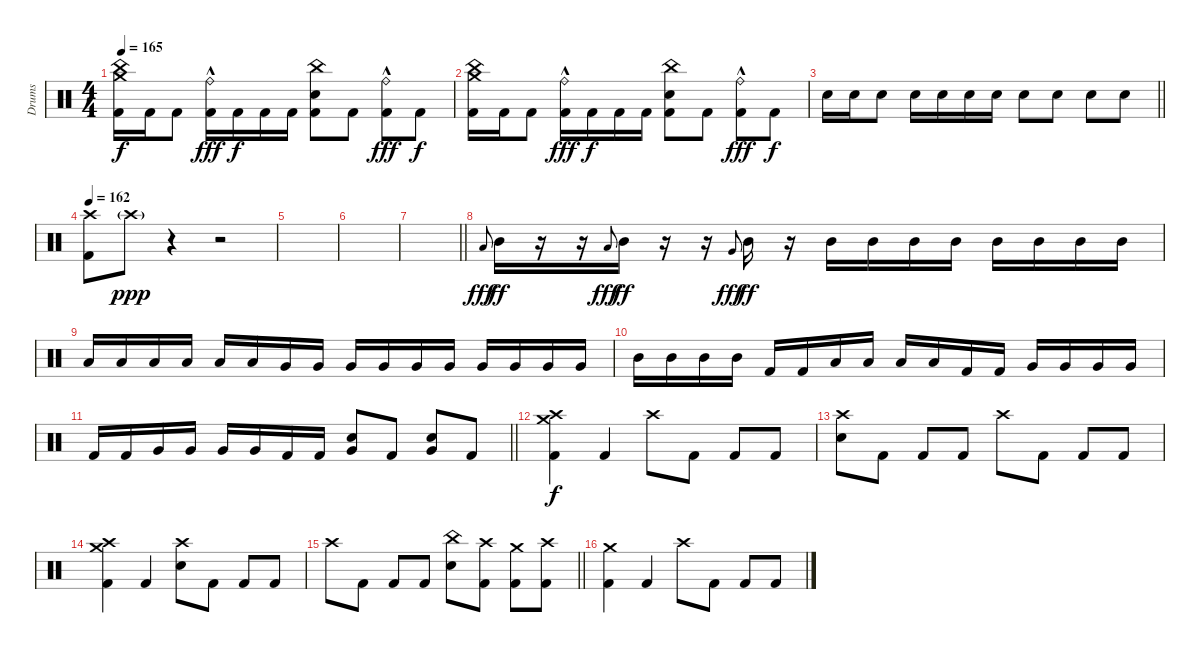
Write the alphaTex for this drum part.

\track ("Drums" "Drums") {instrument percussion}
\staff {score}
\articulation defaults
\ts (4 4)
\tempo 165
\clef neutral
\ks c
("China (hit)" "Crash medium (hit)" "Kick (hit) 2").16{dy f} "Kick (hit) 2".16 "Kick (hit) 2".8 ("Ride (bell)"{hac} "Kick (hit) 2").16{dy fff} "Kick (hit) 2".16{dy f} "Kick (hit) 2".16 "Kick (hit) 2".16 ("China (hit)" "Electric Snare (hit)" "Kick (hit) 2").8 "Kick (hit) 2".8 ("Ride (bell)"{hac} "Kick (hit) 2").8{dy fff} "Kick (hit) 2".8{dy f} |
("China (hit)" "Crash medium (hit)" "Kick (hit) 2").16 "Kick (hit) 2".16 "Kick (hit) 2".8 ("Ride (bell)"{hac} "Kick (hit) 2").16{dy fff} "Kick (hit) 2".16{dy f} "Kick (hit) 2".16 "Kick (hit) 2".16 ("China (hit)" "Electric Snare (hit)" "Kick (hit) 2").8 "Kick (hit) 2".8 ("Ride (bell)"{hac} "Kick (hit) 2").8{dy fff} "Kick (hit) 2".8{dy f} |
\barLineRight lightlight "Electric Snare (hit)".16 "Electric Snare (hit)".16 "Electric Snare (hit)".8 "Electric Snare (hit)".16 "Electric Snare (hit)".16 "Electric Snare (hit)".16 "Electric Snare (hit)".16 "Electric Snare (hit)".8 "Electric Snare (hit)".8 "Electric Snare (hit)".8 "Electric Snare (hit)".8
|
\section ("" "")
\tempo 162
("Crash high (hit)" "Kick (hit) 2").8 "Crash high (hit)"{g}.8{dy ppp} r.4 r.2 |
|
|
\barLineRight lightlight
|
"Low Tom (hit)".8{gr onbeat dy fff} "Mid Tom (hit)".16{dy ff} r.16 r.16 "Low Tom (hit)".8{gr onbeat dy fff} "Mid Tom (hit)".16{dy ff} r.16 r.16 "Very Low Tom (hit)".8{gr onbeat dy fff} "Mid Tom (hit)".16{dy ff} r.16 "Mid Tom (hit)".16 "Mid Tom (hit)".16 "Mid Tom (hit)".16 "Mid Tom (hit)".16 "Mid Tom (hit)".16 "Mid Tom (hit)".16 "Mid Tom (hit)".16 "Mid Tom (hit)".16 |
"Low Tom (hit)".16 "Low Tom (hit)".16 "Low Tom (hit)".16 "Low Tom (hit)".16 "Low Tom (hit)".16 "Low Tom (hit)".16 "Very Low Tom (hit)".16 "Very Low Tom (hit)".16 "Very Low Tom (hit)".16 "Very Low Tom (hit)".16 "Very Low Tom (hit)".16 "Very Low Tom (hit)".16 "Very Low Tom (hit)".16 "Very Low Tom (hit)".16 "Very Low Tom (hit)".16 "Very Low Tom (hit)".16 |
"Mid Tom (hit)".16 "Mid Tom (hit)".16 "Mid Tom (hit)".16 "Mid Tom (hit)".16 "Kick (hit) 2".16 "Kick (hit) 2".16 "Low Tom (hit)".16 "Low Tom (hit)".16 "Low Tom (hit)".16 "Low Tom (hit)".16 "Kick (hit) 2".16 "Kick (hit) 2".16 "Very Low Tom (hit)".16 "Very Low Tom (hit)".16 "Very Low Tom (hit)".16 "Very Low Tom (hit)".16 |
\barLineRight lightlight "Kick (hit) 2".16 "Kick (hit) 2".16 "Very Low Tom (hit)".16 "Very Low Tom (hit)".16 "Very Low Tom (hit)".16 "Very Low Tom (hit)".16 "Kick (hit) 2".16 "Kick (hit) 2".16
("Electric Snare (hit)" "Very Low Tom (hit)").8 "Kick (hit) 2".8 ("Electric Snare (hit)" "Very Low Tom (hit)").8 "Kick (hit) 2".8 |
\section ("" "")
("Crash high (hit)" "Crash medium (hit)" "Kick (hit) 2").4{dy f} "Kick (hit) 2".4 "Crash high (hit)".8 "Kick (hit) 2".8 "Kick (hit) 2".8 "Kick (hit) 2".8 |
("Crash high (hit)" "Electric Snare (hit)").8 "Kick (hit) 2".8 "Kick (hit) 2".8 "Kick (hit) 2".8 "Crash high (hit)".8 "Kick (hit) 2".8 "Kick (hit) 2".8 "Kick (hit) 2".8 |
("Crash high (hit)" "Crash medium (hit)" "Kick (hit) 2").4 "Kick (hit) 2".4 ("Crash high (hit)" "Electric Snare (hit)").8 "Kick (hit) 2".8 "Kick (hit) 2".8 "Kick (hit) 2".8 |
\barLineRight lightlight "Crash high (hit)".8 "Kick (hit) 2".8 "Kick (hit) 2".8 "Kick (hit) 2".8
("China (hit)" "Electric Snare (hit)").8 ("Crash high (hit)" "Kick (hit) 2").8 ("Crash medium (hit)" "Kick (hit) 2").8 ("Crash high (hit)" "Kick (hit) 2").8 |
("Crash medium (hit)" "Kick (hit) 2").4 "Kick (hit) 2".4 "Crash high (hit)".8 "Kick (hit) 2".8 "Kick (hit) 2".8 "Kick (hit) 2".8
